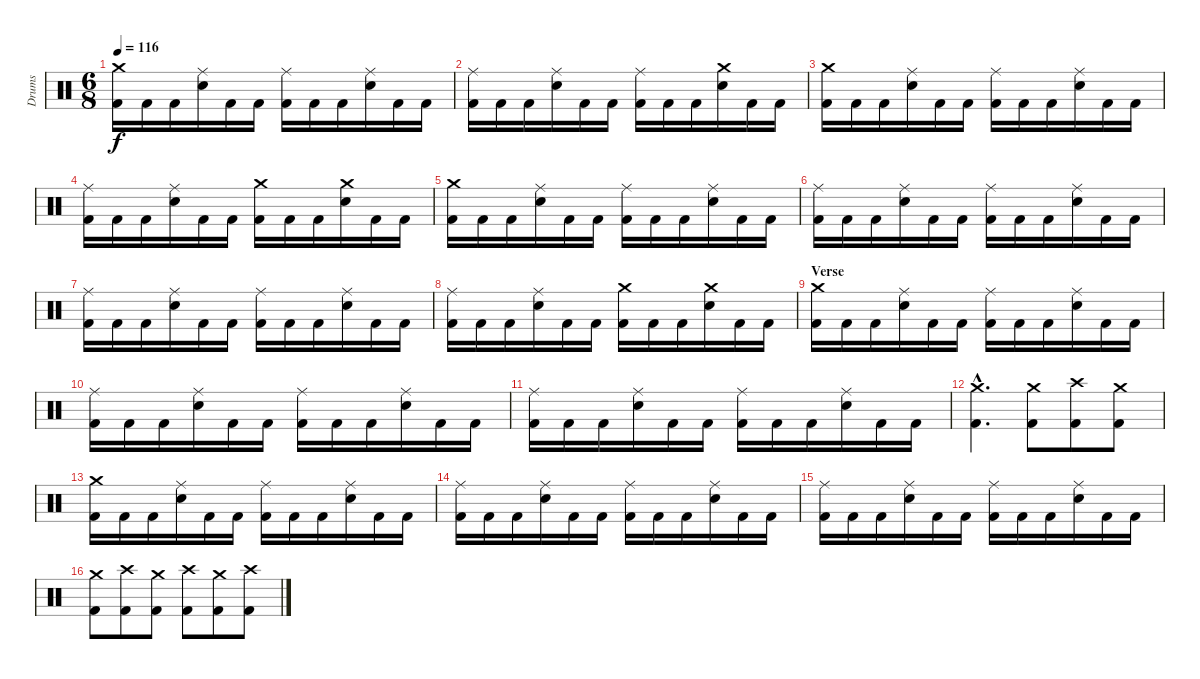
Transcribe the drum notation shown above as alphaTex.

\track ("Drums" "Drums") {instrument percussion}
\staff {score}
\articulation defaults
\ts (6 8)
\section ("" "")
\tempo 116
\clef neutral
\ks c
("Crash medium (hit)" "Kick (hit) 2").16{dy f} "Kick (hit) 2".16 "Kick (hit) 2".16 ("Ride (middle)" "Electric Snare (hit)").16 "Kick (hit) 2".16 "Kick (hit) 2".16 ("Ride (middle)" "Kick (hit) 2").16 "Kick (hit) 2".16 "Kick (hit) 2".16 ("Ride (middle)" "Electric Snare (hit)").16 "Kick (hit) 2".16 "Kick (hit) 2".16 |
("Ride (middle)" "Kick (hit) 2").16 "Kick (hit) 2".16 "Kick (hit) 2".16 ("Ride (middle)" "Electric Snare (hit)").16 "Kick (hit) 2".16 "Kick (hit) 2".16 ("Ride (middle)" "Kick (hit) 2").16 "Kick (hit) 2".16 "Kick (hit) 2".16 ("Crash medium (hit)" "Electric Snare (hit)").16 "Kick (hit) 2".16 "Kick (hit) 2".16 |
("Crash medium (hit)" "Kick (hit) 2").16 "Kick (hit) 2".16 "Kick (hit) 2".16 ("Ride (middle)" "Electric Snare (hit)").16 "Kick (hit) 2".16 "Kick (hit) 2".16 ("Ride (middle)" "Kick (hit) 2").16 "Kick (hit) 2".16 "Kick (hit) 2".16 ("Ride (middle)" "Electric Snare (hit)").16 "Kick (hit) 2".16 "Kick (hit) 2".16 |
("Ride (middle)" "Kick (hit) 2").16 "Kick (hit) 2".16 "Kick (hit) 2".16 ("Ride (middle)" "Electric Snare (hit)").16 "Kick (hit) 2".16 "Kick (hit) 2".16 ("Crash medium (hit)" "Kick (hit) 2").16 "Kick (hit) 2".16 "Kick (hit) 2".16 ("Crash medium (hit)" "Electric Snare (hit)").16 "Kick (hit) 2".16 "Kick (hit) 2".16 |
("Crash medium (hit)" "Kick (hit) 2").16 "Kick (hit) 2".16 "Kick (hit) 2".16 ("Ride (middle)" "Electric Snare (hit)").16 "Kick (hit) 2".16 "Kick (hit) 2".16 ("Ride (middle)" "Kick (hit) 2").16 "Kick (hit) 2".16 "Kick (hit) 2".16 ("Ride (middle)" "Electric Snare (hit)").16 "Kick (hit) 2".16 "Kick (hit) 2".16 |
("Ride (middle)" "Kick (hit) 2").16 "Kick (hit) 2".16 "Kick (hit) 2".16 ("Ride (middle)" "Electric Snare (hit)").16 "Kick (hit) 2".16 "Kick (hit) 2".16 ("Ride (middle)" "Kick (hit) 2").16 "Kick (hit) 2".16 "Kick (hit) 2".16 ("Ride (middle)" "Electric Snare (hit)").16 "Kick (hit) 2".16 "Kick (hit) 2".16 |
("Ride (middle)" "Kick (hit) 2").16 "Kick (hit) 2".16 "Kick (hit) 2".16 ("Ride (middle)" "Electric Snare (hit)").16 "Kick (hit) 2".16 "Kick (hit) 2".16 ("Ride (middle)" "Kick (hit) 2").16 "Kick (hit) 2".16 "Kick (hit) 2".16 ("Ride (middle)" "Electric Snare (hit)").16 "Kick (hit) 2".16 "Kick (hit) 2".16 |
("Ride (middle)" "Kick (hit) 2").16 "Kick (hit) 2".16 "Kick (hit) 2".16 ("Ride (middle)" "Electric Snare (hit)").16 "Kick (hit) 2".16 "Kick (hit) 2".16 ("Crash medium (hit)" "Kick (hit) 2").16 "Kick (hit) 2".16 "Kick (hit) 2".16 ("Crash medium (hit)" "Electric Snare (hit)").16 "Kick (hit) 2".16 "Kick (hit) 2".16 |
\section ("" "Verse")
("Crash medium (hit)" "Kick (hit) 2").16 "Kick (hit) 2".16 "Kick (hit) 2".16 ("Ride (middle)" "Electric Snare (hit)").16 "Kick (hit) 2".16 "Kick (hit) 2".16 ("Ride (middle)" "Kick (hit) 2").16 "Kick (hit) 2".16 "Kick (hit) 2".16 ("Ride (middle)" "Electric Snare (hit)").16 "Kick (hit) 2".16 "Kick (hit) 2".16 |
("Ride (middle)" "Kick (hit) 2").16 "Kick (hit) 2".16 "Kick (hit) 2".16 ("Ride (middle)" "Electric Snare (hit)").16 "Kick (hit) 2".16 "Kick (hit) 2".16 ("Ride (middle)" "Kick (hit) 2").16 "Kick (hit) 2".16 "Kick (hit) 2".16 ("Ride (middle)" "Electric Snare (hit)").16 "Kick (hit) 2".16 "Kick (hit) 2".16 |
("Ride (middle)" "Kick (hit) 2").16 "Kick (hit) 2".16 "Kick (hit) 2".16 ("Ride (middle)" "Electric Snare (hit)").16 "Kick (hit) 2".16 "Kick (hit) 2".16 ("Ride (middle)" "Kick (hit) 2").16 "Kick (hit) 2".16 "Kick (hit) 2".16 ("Ride (middle)" "Electric Snare (hit)").16 "Kick (hit) 2".16 "Kick (hit) 2".16 |
("Crash medium (hit)"{hac} "Kick (hit) 2"{hac}).4{d} ("Crash medium (hit)" "Kick (hit) 2").8 ("Crash high (hit)" "Kick (hit) 2").8 ("Crash medium (hit)" "Kick (hit) 2").8 |
("Crash medium (hit)" "Kick (hit) 2").16 "Kick (hit) 2".16 "Kick (hit) 2".16 ("Ride (middle)" "Electric Snare (hit)").16 "Kick (hit) 2".16 "Kick (hit) 2".16 ("Ride (middle)" "Kick (hit) 2").16 "Kick (hit) 2".16 "Kick (hit) 2".16 ("Ride (middle)" "Electric Snare (hit)").16 "Kick (hit) 2".16 "Kick (hit) 2".16 |
("Ride (middle)" "Kick (hit) 2").16 "Kick (hit) 2".16 "Kick (hit) 2".16 ("Ride (middle)" "Electric Snare (hit)").16 "Kick (hit) 2".16 "Kick (hit) 2".16 ("Ride (middle)" "Kick (hit) 2").16 "Kick (hit) 2".16 "Kick (hit) 2".16 ("Ride (middle)" "Electric Snare (hit)").16 "Kick (hit) 2".16 "Kick (hit) 2".16 |
("Ride (middle)" "Kick (hit) 2").16 "Kick (hit) 2".16 "Kick (hit) 2".16 ("Ride (middle)" "Electric Snare (hit)").16 "Kick (hit) 2".16 "Kick (hit) 2".16 ("Ride (middle)" "Kick (hit) 2").16 "Kick (hit) 2".16 "Kick (hit) 2".16 ("Ride (middle)" "Electric Snare (hit)").16 "Kick (hit) 2".16 "Kick (hit) 2".16 |
("Crash medium (hit)" "Kick (hit) 2").8 ("Crash high (hit)" "Kick (hit) 2").8 ("Crash medium (hit)" "Kick (hit) 2").8 ("Crash high (hit)" "Kick (hit) 2").8 ("Crash medium (hit)" "Kick (hit) 2").8 ("Crash high (hit)" "Kick (hit) 2").8
